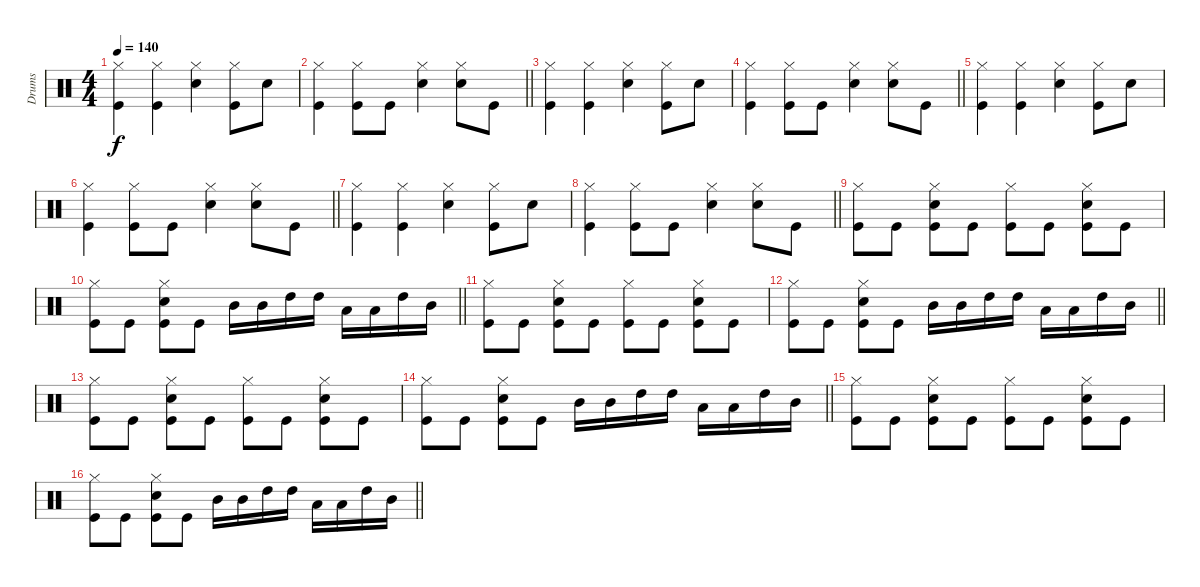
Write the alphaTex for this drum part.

\track ("Drums" "Drums") {instrument percussion}
\staff {score}
\articulation defaults
\ts (4 4)
\tempo 140
\clef neutral
\ks c
("Hi-Hat (closed)" "Kick (hit)").4{dy f} ("Hi-Hat (closed)" "Kick (hit)").4 ("Hi-Hat (closed)" "Snare (hit) 2").4 ("Hi-Hat (closed)" "Kick (hit)").8 "Snare (hit) 2".8 |
\barLineRight lightlight
("Hi-Hat (closed)" "Kick (hit)").4 ("Hi-Hat (closed)" "Kick (hit)").8 "Kick (hit)".8 ("Hi-Hat (closed)" "Snare (hit) 2").4 ("Hi-Hat (closed)" "Snare (hit) 2").8 "Kick (hit)".8 |
("Hi-Hat (closed)" "Kick (hit)").4 ("Hi-Hat (closed)" "Kick (hit)").4 ("Hi-Hat (closed)" "Snare (hit) 2").4 ("Hi-Hat (closed)" "Kick (hit)").8 "Snare (hit) 2".8 |
\barLineRight lightlight
("Hi-Hat (closed)" "Kick (hit)").4 ("Hi-Hat (closed)" "Kick (hit)").8 "Kick (hit)".8 ("Hi-Hat (closed)" "Snare (hit) 2").4 ("Hi-Hat (closed)" "Snare (hit) 2").8 "Kick (hit)".8 |
("Hi-Hat (closed)" "Kick (hit)").4 ("Hi-Hat (closed)" "Kick (hit)").4 ("Hi-Hat (closed)" "Snare (hit) 2").4 ("Hi-Hat (closed)" "Kick (hit)").8 "Snare (hit) 2".8 |
\barLineRight lightlight
("Hi-Hat (closed)" "Kick (hit)").4 ("Hi-Hat (closed)" "Kick (hit)").8 "Kick (hit)".8 ("Hi-Hat (closed)" "Snare (hit) 2").4 ("Hi-Hat (closed)" "Snare (hit) 2").8 "Kick (hit)".8 |
("Hi-Hat (closed)" "Kick (hit)").4 ("Hi-Hat (closed)" "Kick (hit)").4 ("Hi-Hat (closed)" "Snare (hit) 2").4 ("Hi-Hat (closed)" "Kick (hit)").8 "Snare (hit) 2".8 |
\barLineRight lightlight
("Hi-Hat (closed)" "Kick (hit)").4 ("Hi-Hat (closed)" "Kick (hit)").8 "Kick (hit)".8 ("Hi-Hat (closed)" "Snare (hit) 2").4 ("Hi-Hat (closed)" "Snare (hit) 2").8 "Kick (hit)".8 |
("Hi-Hat (closed)" "Kick (hit)").8 "Kick (hit)".8 ("Hi-Hat (closed)" "Kick (hit)" "Snare (hit) 2").8 "Kick (hit)".8 ("Hi-Hat (closed)" "Kick (hit)").8 "Kick (hit)".8 ("Hi-Hat (closed)" "Kick (hit)" "Snare (hit) 2").8 "Kick (hit)".8 |
\barLineRight lightlight
("Hi-Hat (closed)" "Kick (hit)").8 "Kick (hit)".8 ("Hi-Hat (closed)" "Kick (hit)" "Snare (hit) 2").8 "Kick (hit)".8 "Mid Tom (hit)".16 "Mid Tom (hit)".16 "High Tom (hit)".16 "High Tom (hit)".16 "Low Tom (hit)".16 "Low Tom (hit)".16 "High Tom (hit)".16 "Mid Tom (hit)".16 |
("Hi-Hat (closed)" "Kick (hit)").8 "Kick (hit)".8 ("Hi-Hat (closed)" "Kick (hit)" "Snare (hit) 2").8 "Kick (hit)".8 ("Hi-Hat (closed)" "Kick (hit)").8 "Kick (hit)".8 ("Hi-Hat (closed)" "Kick (hit)" "Snare (hit) 2").8 "Kick (hit)".8 |
\barLineRight lightlight
("Hi-Hat (closed)" "Kick (hit)").8 "Kick (hit)".8 ("Hi-Hat (closed)" "Kick (hit)" "Snare (hit) 2").8 "Kick (hit)".8 "Mid Tom (hit)".16 "Mid Tom (hit)".16 "High Tom (hit)".16 "High Tom (hit)".16 "Low Tom (hit)".16 "Low Tom (hit)".16 "High Tom (hit)".16 "Mid Tom (hit)".16 |
("Hi-Hat (closed)" "Kick (hit)").8 "Kick (hit)".8 ("Hi-Hat (closed)" "Kick (hit)" "Snare (hit) 2").8 "Kick (hit)".8 ("Hi-Hat (closed)" "Kick (hit)").8 "Kick (hit)".8 ("Hi-Hat (closed)" "Kick (hit)" "Snare (hit) 2").8 "Kick (hit)".8 |
\barLineRight lightlight
("Hi-Hat (closed)" "Kick (hit)").8 "Kick (hit)".8 ("Hi-Hat (closed)" "Kick (hit)" "Snare (hit) 2").8 "Kick (hit)".8 "Mid Tom (hit)".16 "Mid Tom (hit)".16 "High Tom (hit)".16 "High Tom (hit)".16 "Low Tom (hit)".16 "Low Tom (hit)".16 "High Tom (hit)".16 "Mid Tom (hit)".16 |
("Hi-Hat (closed)" "Kick (hit)").8 "Kick (hit)".8 ("Hi-Hat (closed)" "Kick (hit)" "Snare (hit) 2").8 "Kick (hit)".8 ("Hi-Hat (closed)" "Kick (hit)").8 "Kick (hit)".8 ("Hi-Hat (closed)" "Kick (hit)" "Snare (hit) 2").8 "Kick (hit)".8 |
\barLineRight lightlight
("Hi-Hat (closed)" "Kick (hit)").8 "Kick (hit)".8 ("Hi-Hat (closed)" "Kick (hit)" "Snare (hit) 2").8 "Kick (hit)".8 "Mid Tom (hit)".16 "Mid Tom (hit)".16 "High Tom (hit)".16 "High Tom (hit)".16 "Low Tom (hit)".16 "Low Tom (hit)".16 "High Tom (hit)".16 "Mid Tom (hit)".16
